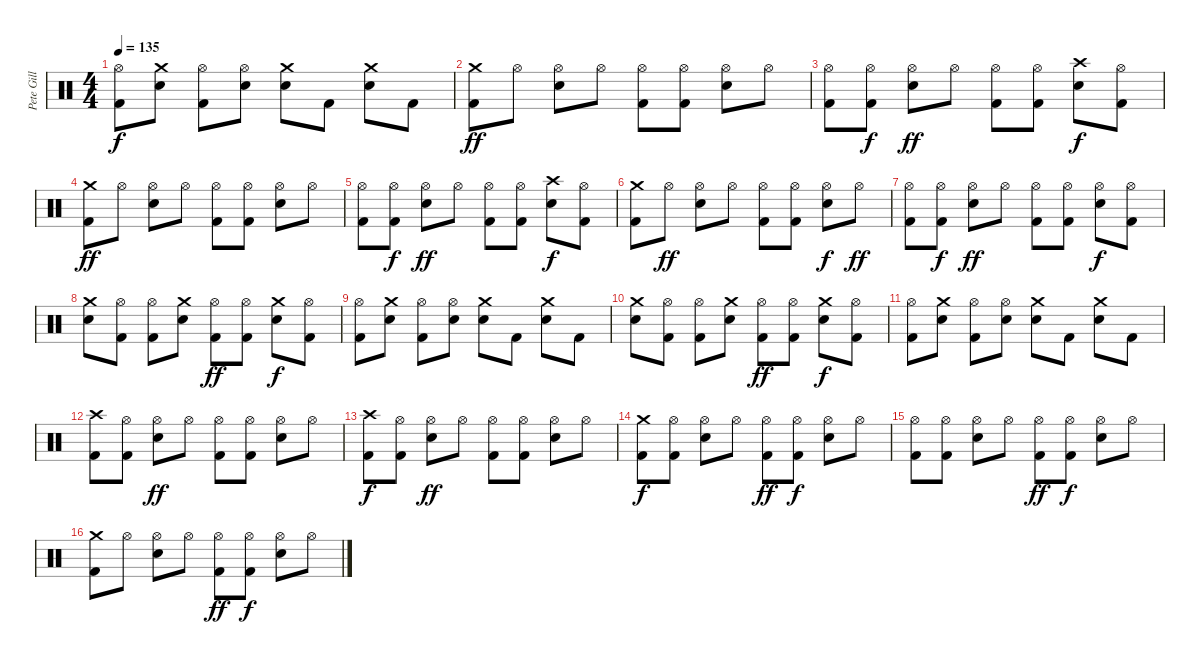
\track ("Pete Gill" "Pete Gill") {instrument percussion}
\staff {score}
\articulation defaults
\ts (4 4)
\tempo 135
\clef neutral
\ks c
("Hi-Hat (open)" "Kick (hit) 2").8{dy f} ("Crash medium (hit)" "Snare (hit) 2").8 ("Hi-Hat (open)" "Kick (hit) 2").8 ("Hi-Hat (open)" "Snare (hit) 2").8 ("Crash medium (hit)" "Snare (hit) 2").8 "Kick (hit) 2".8 ("Crash medium (hit)" "Snare (hit) 2").8 "Kick (hit) 2".8 |
("Crash medium (hit)" "Kick (hit) 2").8{dy ff} "Hi-Hat (open)".8 ("Hi-Hat (open)" "Snare (hit) 2").8 "Hi-Hat (open)".8 ("Hi-Hat (open)" "Kick (hit) 2").8 ("Hi-Hat (open)" "Kick (hit) 2").8 ("Hi-Hat (open)" "Snare (hit) 2").8 "Hi-Hat (open)".8 |
("Hi-Hat (open)" "Kick (hit) 2").8 ("Hi-Hat (open)" "Kick (hit) 2").8{dy f} ("Hi-Hat (open)" "Snare (hit) 2").8{dy ff} "Hi-Hat (open)".8 ("Hi-Hat (open)" "Kick (hit) 2").8 ("Hi-Hat (open)" "Kick (hit) 2").8 ("Snare (hit) 2" "Crash high (hit)").8{dy f} ("Hi-Hat (open)" "Kick (hit) 2").8 |
("Crash medium (hit)" "Kick (hit) 2").8{dy ff} "Hi-Hat (open)".8 ("Hi-Hat (open)" "Snare (hit) 2").8 "Hi-Hat (open)".8 ("Hi-Hat (open)" "Kick (hit) 2").8 ("Hi-Hat (open)" "Kick (hit) 2").8 ("Hi-Hat (open)" "Snare (hit) 2").8 "Hi-Hat (open)".8 |
("Hi-Hat (open)" "Kick (hit) 2").8 ("Hi-Hat (open)" "Kick (hit) 2").8{dy f} ("Hi-Hat (open)" "Snare (hit) 2").8{dy ff} "Hi-Hat (open)".8 ("Hi-Hat (open)" "Kick (hit) 2").8 ("Hi-Hat (open)" "Kick (hit) 2").8 ("Snare (hit) 2" "Crash high (hit)").8{dy f} ("Hi-Hat (open)" "Kick (hit) 2").8 |
("Crash medium (hit)" "Kick (hit) 2").8 "Hi-Hat (open)".8{dy ff} ("Hi-Hat (open)" "Snare (hit) 2").8 "Hi-Hat (open)".8 ("Hi-Hat (open)" "Kick (hit) 2").8 ("Hi-Hat (open)" "Kick (hit) 2").8 ("Hi-Hat (open)" "Snare (hit) 2").8{dy f} "Hi-Hat (open)".8{dy ff} |
("Hi-Hat (open)" "Kick (hit) 2").8 ("Hi-Hat (open)" "Kick (hit) 2").8{dy f} ("Hi-Hat (open)" "Snare (hit) 2").8{dy ff} "Hi-Hat (open)".8 ("Hi-Hat (open)" "Kick (hit) 2").8 ("Hi-Hat (open)" "Kick (hit) 2").8 ("Snare (hit) 2" "Hi-Hat (open)").8{dy f} ("Hi-Hat (open)" "Kick (hit) 2").8 |
("Crash medium (hit)" "Snare (hit) 2").8 ("Hi-Hat (open)" "Kick (hit) 2").8 ("Hi-Hat (open)" "Kick (hit) 2").8 ("Crash medium (hit)" "Snare (hit) 2").8 ("Hi-Hat (open)" "Kick (hit) 2").8{dy ff} ("Hi-Hat (open)" "Kick (hit) 2").8 ("Crash medium (hit)" "Snare (hit) 2").8{dy f} ("Hi-Hat (open)" "Kick (hit) 2").8 |
("Hi-Hat (open)" "Kick (hit) 2").8 ("Crash medium (hit)" "Snare (hit) 2").8 ("Hi-Hat (open)" "Kick (hit) 2").8 ("Hi-Hat (open)" "Snare (hit) 2").8 ("Crash medium (hit)" "Snare (hit) 2").8 "Kick (hit) 2".8 ("Crash medium (hit)" "Snare (hit) 2").8 "Kick (hit) 2".8 |
("Crash medium (hit)" "Snare (hit) 2").8 ("Hi-Hat (open)" "Kick (hit) 2").8 ("Hi-Hat (open)" "Kick (hit) 2").8 ("Crash medium (hit)" "Snare (hit) 2").8 ("Hi-Hat (open)" "Kick (hit) 2").8{dy ff} ("Hi-Hat (open)" "Kick (hit) 2").8 ("Crash medium (hit)" "Snare (hit) 2").8{dy f} ("Hi-Hat (open)" "Kick (hit) 2").8 |
("Hi-Hat (open)" "Kick (hit) 2").8 ("Crash medium (hit)" "Snare (hit) 2").8 ("Hi-Hat (open)" "Kick (hit) 2").8 ("Hi-Hat (open)" "Snare (hit) 2").8 ("Crash medium (hit)" "Snare (hit) 2").8 "Kick (hit) 2".8 ("Crash medium (hit)" "Snare (hit) 2").8 "Kick (hit) 2".8 |
("Kick (hit) 2" "Crash high (hit)").8 ("Hi-Hat (open)" "Kick (hit) 2").8 ("Hi-Hat (open)" "Snare (hit) 2").8{dy ff} "Hi-Hat (open)".8 ("Hi-Hat (open)" "Kick (hit) 2").8 ("Hi-Hat (open)" "Kick (hit) 2").8 ("Hi-Hat (open)" "Snare (hit) 2").8 "Hi-Hat (open)".8 |
("Kick (hit) 2" "Crash high (hit)").8{dy f} ("Hi-Hat (open)" "Kick (hit) 2").8 ("Hi-Hat (open)" "Snare (hit) 2").8{dy ff} "Hi-Hat (open)".8 ("Hi-Hat (open)" "Kick (hit) 2").8 ("Hi-Hat (open)" "Kick (hit) 2").8 ("Hi-Hat (open)" "Snare (hit) 2").8 "Hi-Hat (open)".8 |
("Crash medium (hit)" "Kick (hit) 2").8{dy f} ("Hi-Hat (open)" "Kick (hit) 2").8 ("Hi-Hat (open)" "Snare (hit) 2").8 "Hi-Hat (open)".8 ("Hi-Hat (open)" "Kick (hit) 2").8{dy ff} ("Hi-Hat (open)" "Kick (hit) 2").8{dy f} ("Hi-Hat (open)" "Snare (hit) 2").8 "Hi-Hat (open)".8 |
("Hi-Hat (open)" "Kick (hit) 2").8 ("Hi-Hat (open)" "Kick (hit) 2").8 ("Hi-Hat (open)" "Snare (hit) 2").8 "Hi-Hat (open)".8 ("Hi-Hat (open)" "Kick (hit) 2").8{dy ff} ("Hi-Hat (open)" "Kick (hit) 2").8{dy f} ("Hi-Hat (open)" "Snare (hit) 2").8 "Hi-Hat (open)".8 |
("Crash medium (hit)" "Kick (hit) 2").8 "Hi-Hat (open)".8 ("Hi-Hat (open)" "Snare (hit) 2").8 "Hi-Hat (open)".8 ("Hi-Hat (open)" "Kick (hit) 2").8{dy ff} ("Hi-Hat (open)" "Kick (hit) 2").8{dy f} ("Hi-Hat (open)" "Snare (hit) 2").8 "Hi-Hat (open)".8
